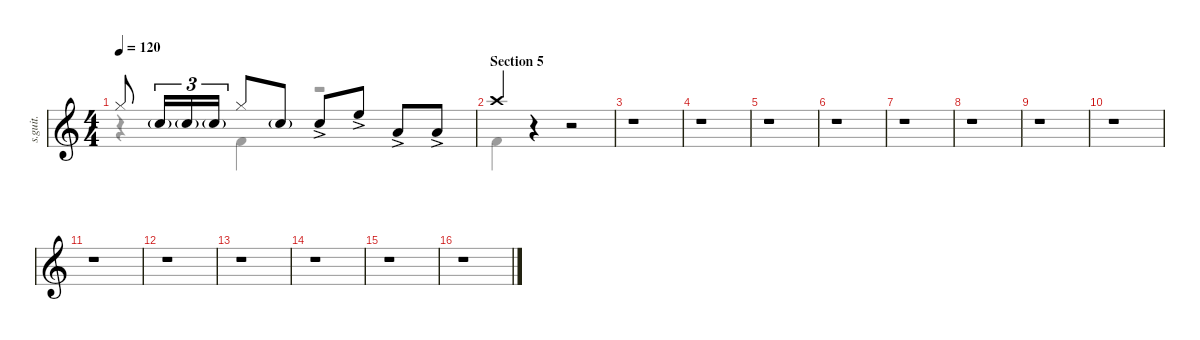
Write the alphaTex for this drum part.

\defaultSystemsLayout 4
\hideDynamics
\bracketExtendMode nobrackets
\track ("Matt Halpern" "s.guit.") {instrument percussion}
\staff {score}
\articulation defaults
\voice
\ts (4 4)
\tempo 120
\clef g2
\ks c "Hi-Hat (closed)".8{lyrics (0 "") lyrics (1 "") lyrics (2 "") lyrics (3 "") lyrics (4 "") dy mf} "Snare (hit) 2"{g}.16{tu (3 2) lyrics (0 "") lyrics (1 "") lyrics (2 "") lyrics (3 "") lyrics (4 "")} "Snare (hit) 2"{g}.16{tu (3 2) lyrics (0 "") lyrics (1 "") lyrics (2 "") lyrics (3 "") lyrics (4 "")} "Snare (hit) 2"{g}.16{tu (3 2) lyrics (0 "") lyrics (1 "") lyrics (2 "") lyrics (3 "") lyrics (4 "")} "Hi-Hat (closed)".8{lyrics (0 "") lyrics (1 "") lyrics (2 "") lyrics (3 "") lyrics (4 "")} "Snare (hit) 2"{g}.8{lyrics (0 "") lyrics (1 "") lyrics (2 "") lyrics (3 "") lyrics (4 "")} "Snare (hit) 2"{ac}.8{lyrics (0 "") lyrics (1 "") lyrics (2 "") lyrics (3 "") lyrics (4 "")} "High Floor Tom (hit)"{ac}.8{lyrics (0 "") lyrics (1 "") lyrics (2 "") lyrics (3 "") lyrics (4 "")} "Low Tom (hit)"{ac}.8{lyrics (0 "") lyrics (1 "") lyrics (2 "") lyrics (3 "") lyrics (4 "")} "Low Tom (hit)"{ac}.8{lyrics (0 "") lyrics (1 "") lyrics (2 "") lyrics (3 "") lyrics (4 "")}
|
\section ("" "Section 5")
"Crash high (hit)".4{lyrics (0 "") lyrics (1 "") lyrics (2 "") lyrics (3 "") lyrics (4 "")} r.4 r.2 |
r.1 |
r.1 |
r.1 |
r.1 |
r.1 |
r.1 |
r.1 |
r.1 |
r.1 |
r.1 |
r.1 |
r.1 |
r.1 |
r.1
\voice
\clef g2
\ottava regular
\simile none
\ks c
r.4{dy mf} "Kick (hit) 2".4{lyrics (0 "") lyrics (1 "") lyrics (2 "") lyrics (3 "") lyrics (4 "")} r.2 |
"Kick (hit) 2".4{lyrics (0 "") lyrics (1 "") lyrics (2 "") lyrics (3 "") lyrics (4 "")} r.4 r.2 |
r.1 |
r.1 |
r.1 |
r.1 |
r.1 |
r.1 |
r.1 |
r.1 |
r.1 |
r.1 |
r.1 |
r.1 |
r.1 |
r.1
